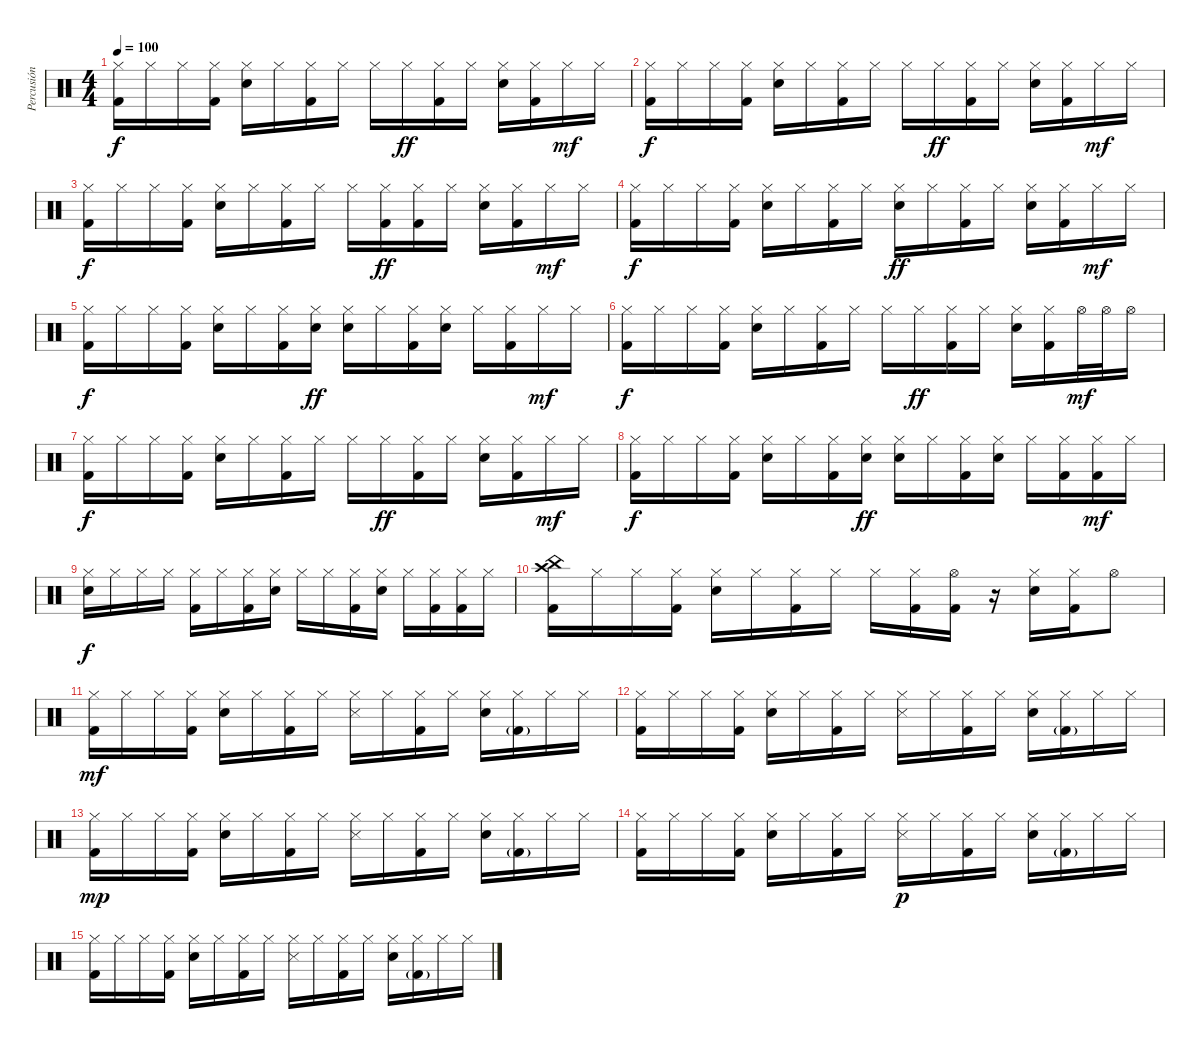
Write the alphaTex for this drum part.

\track ("Percusión" "Percusión") {instrument percussion}
\staff {score}
\articulation defaults
\ts (4 4)
\tempo 100
\clef neutral
\ks c
("Kick (hit) 2" "Hi-Hat (closed)").16{dy f} "Hi-Hat (closed)".16 "Hi-Hat (closed)".16 ("Kick (hit) 2" "Hi-Hat (closed)").16 ("Snare (hit) 2" "Hi-Hat (closed)").16 "Hi-Hat (closed)".16 ("Kick (hit) 2" "Hi-Hat (closed)").16 "Hi-Hat (closed)".16 "Hi-Hat (closed)".16 "Hi-Hat (closed)".16{dy ff} ("Kick (hit) 2" "Hi-Hat (closed)").16 "Hi-Hat (closed)".16 ("Snare (hit) 2" "Hi-Hat (closed)").16 ("Kick (hit) 2" "Hi-Hat (closed)").16 "Hi-Hat (closed)".16{dy mf} "Hi-Hat (closed)".16 |
("Kick (hit) 2" "Hi-Hat (closed)").16{dy f} "Hi-Hat (closed)".16 "Hi-Hat (closed)".16 ("Kick (hit) 2" "Hi-Hat (closed)").16 ("Snare (hit) 2" "Hi-Hat (closed)").16 "Hi-Hat (closed)".16 ("Kick (hit) 2" "Hi-Hat (closed)").16 "Hi-Hat (closed)".16 "Hi-Hat (closed)".16 "Hi-Hat (closed)".16{dy ff} ("Kick (hit) 2" "Hi-Hat (closed)").16 "Hi-Hat (closed)".16 ("Snare (hit) 2" "Hi-Hat (closed)").16 ("Kick (hit) 2" "Hi-Hat (closed)").16 "Hi-Hat (closed)".16{dy mf} "Hi-Hat (closed)".16 |
("Kick (hit) 2" "Hi-Hat (closed)").16{dy f} "Hi-Hat (closed)".16 "Hi-Hat (closed)".16 ("Kick (hit) 2" "Hi-Hat (closed)").16 ("Snare (hit) 2" "Hi-Hat (closed)").16 "Hi-Hat (closed)".16 ("Kick (hit) 2" "Hi-Hat (closed)").16 "Hi-Hat (closed)".16 "Hi-Hat (closed)".16 ("Kick (hit) 2" "Hi-Hat (closed)").16{dy ff} ("Kick (hit) 2" "Hi-Hat (closed)").16 "Hi-Hat (closed)".16 ("Snare (hit) 2" "Hi-Hat (closed)").16 ("Kick (hit) 2" "Hi-Hat (closed)").16 "Hi-Hat (closed)".16{dy mf} "Hi-Hat (closed)".16 |
("Kick (hit) 2" "Hi-Hat (closed)").16{dy f} "Hi-Hat (closed)".16 "Hi-Hat (closed)".16 ("Kick (hit) 2" "Hi-Hat (closed)").16 ("Snare (hit) 2" "Hi-Hat (closed)").16 "Hi-Hat (closed)".16 ("Kick (hit) 2" "Hi-Hat (closed)").16 "Hi-Hat (closed)".16 ("Snare (hit) 2" "Hi-Hat (closed)").16{dy ff} "Hi-Hat (closed)".16 ("Kick (hit) 2" "Hi-Hat (closed)").16 "Hi-Hat (closed)".16 ("Snare (hit) 2" "Hi-Hat (closed)").16 ("Kick (hit) 2" "Hi-Hat (closed)").16 "Hi-Hat (closed)".16{dy mf} "Hi-Hat (closed)".16 |
("Kick (hit) 2" "Hi-Hat (closed)").16{dy f} "Hi-Hat (closed)".16 "Hi-Hat (closed)".16 ("Kick (hit) 2" "Hi-Hat (closed)").16 ("Snare (hit) 2" "Hi-Hat (closed)").16 "Hi-Hat (closed)".16 ("Kick (hit) 2" "Hi-Hat (closed)").16 ("Snare (hit) 2" "Hi-Hat (closed)").16{dy ff} ("Snare (hit) 2" "Hi-Hat (closed)").16 "Hi-Hat (closed)".16 ("Kick (hit) 2" "Hi-Hat (closed)").16 ("Snare (hit) 2" "Hi-Hat (closed)").16 "Hi-Hat (closed)".16 ("Kick (hit) 2" "Hi-Hat (closed)").16 "Hi-Hat (closed)".16{dy mf} "Hi-Hat (closed)".16 |
("Kick (hit) 2" "Hi-Hat (closed)").16{dy f} "Hi-Hat (closed)".16 "Hi-Hat (closed)".16 ("Kick (hit) 2" "Hi-Hat (closed)").16 ("Snare (hit) 2" "Hi-Hat (closed)").16 "Hi-Hat (closed)".16 ("Kick (hit) 2" "Hi-Hat (closed)").16 "Hi-Hat (closed)".16 "Hi-Hat (closed)".16 "Hi-Hat (closed)".16{dy ff} ("Kick (hit) 2" "Hi-Hat (closed)").16 "Hi-Hat (closed)".16 ("Snare (hit) 2" "Hi-Hat (closed)").16 ("Kick (hit) 2" "Hi-Hat (closed)").16 "Hi-Hat (open)".32{dy mf} "Hi-Hat (open)".32 "Hi-Hat (open)".16 |
("Kick (hit) 2" "Hi-Hat (closed)").16{dy f} "Hi-Hat (closed)".16 "Hi-Hat (closed)".16 ("Kick (hit) 2" "Hi-Hat (closed)").16 ("Snare (hit) 2" "Hi-Hat (closed)").16 "Hi-Hat (closed)".16 ("Kick (hit) 2" "Hi-Hat (closed)").16 "Hi-Hat (closed)".16 "Hi-Hat (closed)".16 "Hi-Hat (closed)".16{dy ff} ("Kick (hit) 2" "Hi-Hat (closed)").16 "Hi-Hat (closed)".16 ("Snare (hit) 2" "Hi-Hat (closed)").16 ("Kick (hit) 2" "Hi-Hat (closed)").16 "Hi-Hat (closed)".16{dy mf} "Hi-Hat (closed)".16 |
("Kick (hit) 2" "Hi-Hat (closed)").16{dy f} "Hi-Hat (closed)".16 "Hi-Hat (closed)".16 ("Kick (hit) 2" "Hi-Hat (closed)").16 ("Snare (hit) 2" "Hi-Hat (closed)").16 "Hi-Hat (closed)".16 ("Kick (hit) 2" "Hi-Hat (closed)").16 ("Snare (hit) 2" "Hi-Hat (closed)").16{dy ff} ("Snare (hit) 2" "Hi-Hat (closed)").16 "Hi-Hat (closed)".16 ("Kick (hit) 2" "Hi-Hat (closed)").16 ("Snare (hit) 2" "Hi-Hat (closed)").16 "Hi-Hat (closed)".16 ("Kick (hit) 2" "Hi-Hat (closed)").16 ("Kick (hit) 2" "Hi-Hat (closed)").16{dy mf} "Hi-Hat (closed)".16 |
("Snare (hit) 2" "Hi-Hat (closed)").16{dy f} "Hi-Hat (closed)".16 "Hi-Hat (closed)".16 "Hi-Hat (closed)".16 ("Kick (hit) 2" "Hi-Hat (closed)").16 "Hi-Hat (closed)".16 ("Kick (hit) 2" "Hi-Hat (closed)").16 ("Snare (hit) 2" "Hi-Hat (closed)").16 "Hi-Hat (closed)".16 "Hi-Hat (closed)".16 ("Kick (hit) 2" "Hi-Hat (closed)").16 ("Snare (hit) 2" "Hi-Hat (closed)").16 "Hi-Hat (closed)".16 ("Kick (hit) 2" "Hi-Hat (closed)").16 ("Kick (hit) 2" "Hi-Hat (closed)").16 "Hi-Hat (closed)".16 |
("China (hit)" "Kick (hit) 2" "Crash high (hit)").16 "Hi-Hat (closed)".16 "Hi-Hat (closed)".16 ("Kick (hit) 2" "Hi-Hat (closed)").16 ("Snare (hit) 2" "Hi-Hat (closed)").16 "Hi-Hat (closed)".16 ("Kick (hit) 2" "Hi-Hat (closed)").16 "Hi-Hat (closed)".16 "Hi-Hat (closed)".16 ("Kick (hit) 2" "Hi-Hat (closed)").16 ("Kick (hit) 2" "Hi-Hat (open)").16 r.16 ("Snare (hit) 2" "Hi-Hat (closed)").16 ("Kick (hit) 2" "Hi-Hat (closed)").16 "Hi-Hat (open)".8 |
("Kick (hit) 2" "Hi-Hat (closed)").16{dy mf} "Hi-Hat (closed)".16 "Hi-Hat (closed)".16 ("Kick (hit) 2" "Hi-Hat (closed)").16 ("Snare (hit) 2" "Hi-Hat (closed)").16 "Hi-Hat (closed)".16 ("Kick (hit) 2" "Hi-Hat (closed)").16 "Hi-Hat (closed)".16 ("Snare (side stick) 3" "Hi-Hat (closed)").16 "Hi-Hat (closed)".16 ("Kick (hit) 2" "Hi-Hat (closed)").16 "Hi-Hat (closed)".16 ("Snare (hit) 2" "Hi-Hat (closed)").16 ("Kick (hit) 2"{g} "Hi-Hat (closed)").16 "Hi-Hat (closed)".16 "Hi-Hat (closed)".16 |
("Kick (hit) 2" "Hi-Hat (closed)").16 "Hi-Hat (closed)".16 "Hi-Hat (closed)".16 ("Kick (hit) 2" "Hi-Hat (closed)").16 ("Snare (hit) 2" "Hi-Hat (closed)").16 "Hi-Hat (closed)".16 ("Kick (hit) 2" "Hi-Hat (closed)").16 "Hi-Hat (closed)".16 ("Snare (side stick) 3" "Hi-Hat (closed)").16 "Hi-Hat (closed)".16 ("Kick (hit) 2" "Hi-Hat (closed)").16 "Hi-Hat (closed)".16 ("Snare (hit) 2" "Hi-Hat (closed)").16 ("Kick (hit) 2"{g} "Hi-Hat (closed)").16 "Hi-Hat (closed)".16 "Hi-Hat (closed)".16 |
("Kick (hit) 2" "Hi-Hat (closed)").16{dy mp} "Hi-Hat (closed)".16 "Hi-Hat (closed)".16 ("Kick (hit) 2" "Hi-Hat (closed)").16 ("Snare (hit) 2" "Hi-Hat (closed)").16 "Hi-Hat (closed)".16 ("Kick (hit) 2" "Hi-Hat (closed)").16 "Hi-Hat (closed)".16 ("Snare (side stick) 3" "Hi-Hat (closed)").16 "Hi-Hat (closed)".16 ("Kick (hit) 2" "Hi-Hat (closed)").16 "Hi-Hat (closed)".16 ("Snare (hit) 2" "Hi-Hat (closed)").16 ("Kick (hit) 2"{g} "Hi-Hat (closed)").16 "Hi-Hat (closed)".16 "Hi-Hat (closed)".16 |
("Kick (hit) 2" "Hi-Hat (closed)").16 "Hi-Hat (closed)".16 "Hi-Hat (closed)".16 ("Kick (hit) 2" "Hi-Hat (closed)").16 ("Snare (hit) 2" "Hi-Hat (closed)").16 "Hi-Hat (closed)".16 ("Kick (hit) 2" "Hi-Hat (closed)").16 "Hi-Hat (closed)".16 ("Snare (side stick) 3" "Hi-Hat (closed)").16{dy p} "Hi-Hat (closed)".16 ("Kick (hit) 2" "Hi-Hat (closed)").16 "Hi-Hat (closed)".16 ("Snare (hit) 2" "Hi-Hat (closed)").16 ("Kick (hit) 2"{g} "Hi-Hat (closed)").16 "Hi-Hat (closed)".16 "Hi-Hat (closed)".16 |
("Kick (hit) 2" "Hi-Hat (closed)").16 "Hi-Hat (closed)".16 "Hi-Hat (closed)".16 ("Kick (hit) 2" "Hi-Hat (closed)").16 ("Snare (hit) 2" "Hi-Hat (closed)").16 "Hi-Hat (closed)".16 ("Kick (hit) 2" "Hi-Hat (closed)").16 "Hi-Hat (closed)".16 ("Snare (side stick) 3" "Hi-Hat (closed)").16 "Hi-Hat (closed)".16 ("Kick (hit) 2" "Hi-Hat (closed)").16 "Hi-Hat (closed)".16 ("Snare (hit) 2" "Hi-Hat (closed)").16 ("Kick (hit) 2"{g} "Hi-Hat (closed)").16 "Hi-Hat (closed)".16 "Hi-Hat (closed)".16
